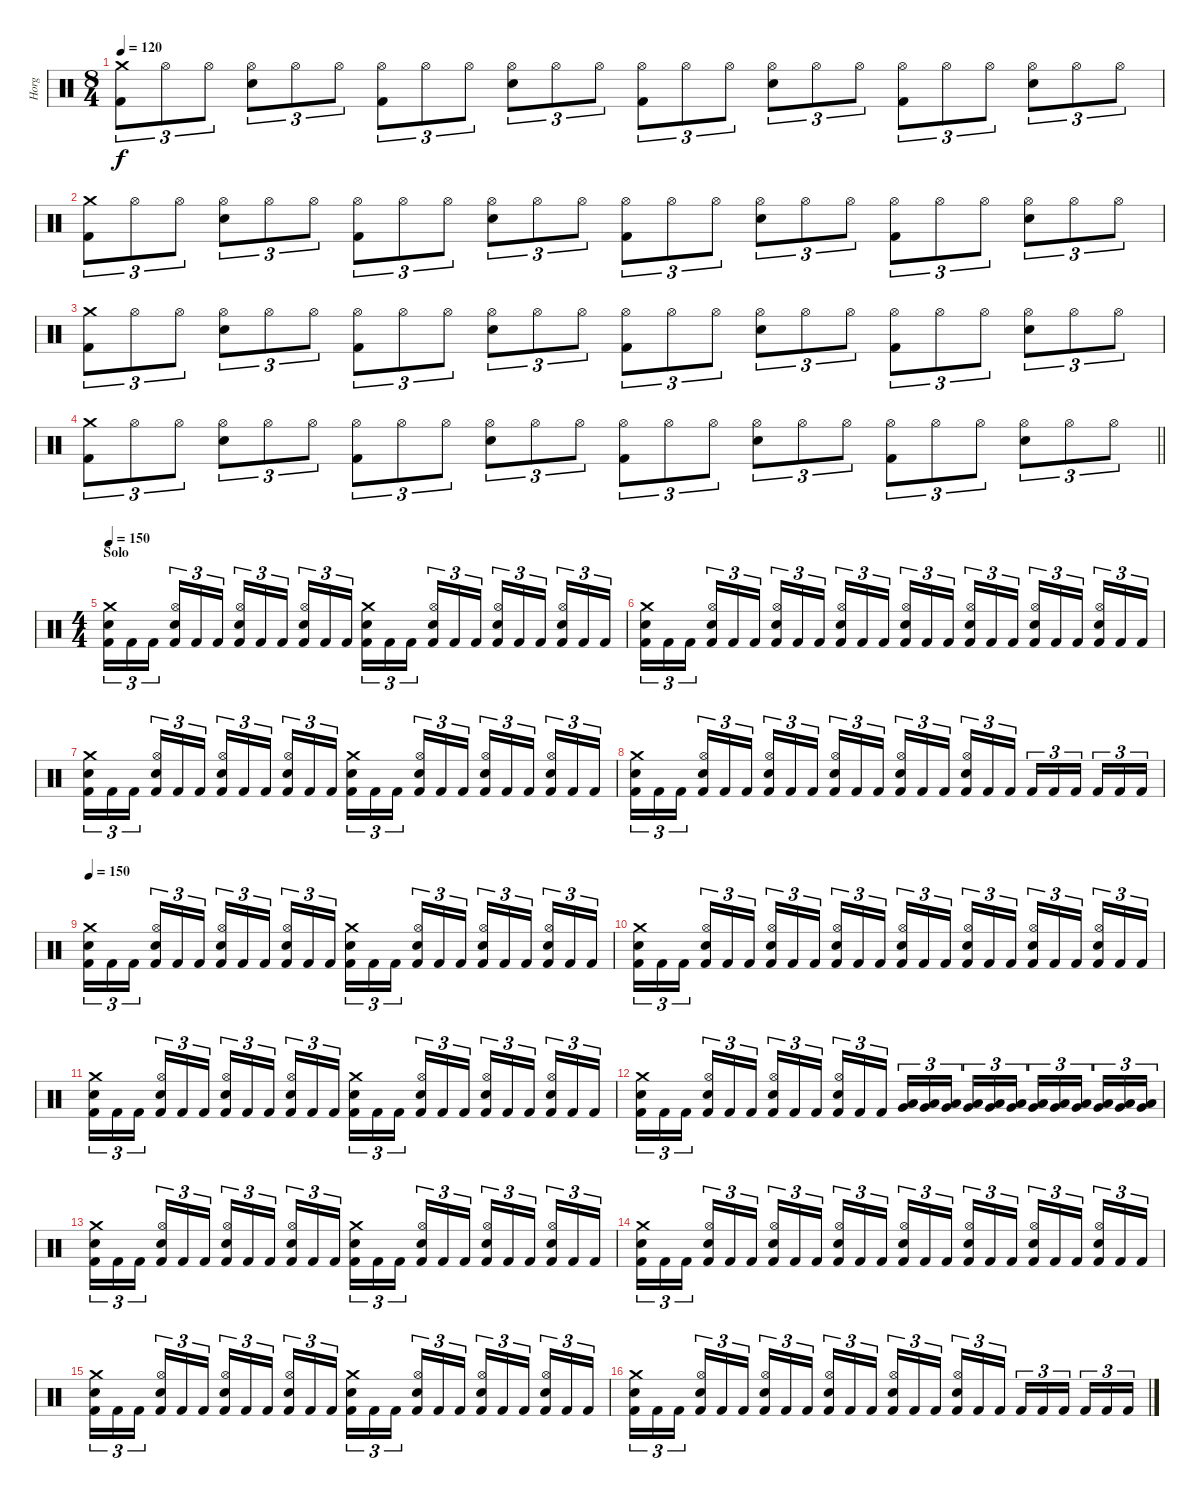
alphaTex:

\track ("Horg" "Horg") {instrument percussion}
\staff {score}
\articulation defaults
\ts (8 4)
\tempo 120
\clef neutral
\ks c
("Crash medium (hit)" "Kick (hit) 2").8{tu (3 2) dy f} "Hi-Hat (open)".8{tu (3 2)} "Hi-Hat (open)".8{tu (3 2)} ("Hi-Hat (open)" "Snare (hit) 2").8{tu (3 2)} "Hi-Hat (open)".8{tu (3 2)} "Hi-Hat (open)".8{tu (3 2)} ("Hi-Hat (open)" "Kick (hit) 2").8{tu (3 2)} "Hi-Hat (open)".8{tu (3 2)} "Hi-Hat (open)".8{tu (3 2)} ("Hi-Hat (open)" "Snare (hit) 2").8{tu (3 2)} "Hi-Hat (open)".8{tu (3 2)} "Hi-Hat (open)".8{tu (3 2)} ("Hi-Hat (open)" "Kick (hit) 2").8{tu (3 2)} "Hi-Hat (open)".8{tu (3 2)} "Hi-Hat (open)".8{tu (3 2)} ("Hi-Hat (open)" "Snare (hit) 2").8{tu (3 2)} "Hi-Hat (open)".8{tu (3 2)} "Hi-Hat (open)".8{tu (3 2)} ("Hi-Hat (open)" "Kick (hit) 2").8{tu (3 2)} "Hi-Hat (open)".8{tu (3 2)} "Hi-Hat (open)".8{tu (3 2)} ("Hi-Hat (open)" "Snare (hit) 2").8{tu (3 2)} "Hi-Hat (open)".8{tu (3 2)} "Hi-Hat (open)".8{tu (3 2)} |
("Crash medium (hit)" "Kick (hit) 2").8{tu (3 2)} "Hi-Hat (open)".8{tu (3 2)} "Hi-Hat (open)".8{tu (3 2)} ("Hi-Hat (open)" "Snare (hit) 2").8{tu (3 2)} "Hi-Hat (open)".8{tu (3 2)} "Hi-Hat (open)".8{tu (3 2)} ("Hi-Hat (open)" "Kick (hit) 2").8{tu (3 2)} "Hi-Hat (open)".8{tu (3 2)} "Hi-Hat (open)".8{tu (3 2)} ("Hi-Hat (open)" "Snare (hit) 2").8{tu (3 2)} "Hi-Hat (open)".8{tu (3 2)} "Hi-Hat (open)".8{tu (3 2)} ("Hi-Hat (open)" "Kick (hit) 2").8{tu (3 2)} "Hi-Hat (open)".8{tu (3 2)} "Hi-Hat (open)".8{tu (3 2)} ("Hi-Hat (open)" "Snare (hit) 2").8{tu (3 2)} "Hi-Hat (open)".8{tu (3 2)} "Hi-Hat (open)".8{tu (3 2)} ("Hi-Hat (open)" "Kick (hit) 2").8{tu (3 2)} "Hi-Hat (open)".8{tu (3 2)} "Hi-Hat (open)".8{tu (3 2)} ("Hi-Hat (open)" "Snare (hit) 2").8{tu (3 2)} "Hi-Hat (open)".8{tu (3 2)} "Hi-Hat (open)".8{tu (3 2)} |
("Crash medium (hit)" "Kick (hit) 2").8{tu (3 2)} "Hi-Hat (open)".8{tu (3 2)} "Hi-Hat (open)".8{tu (3 2)} ("Hi-Hat (open)" "Snare (hit) 2").8{tu (3 2)} "Hi-Hat (open)".8{tu (3 2)} "Hi-Hat (open)".8{tu (3 2)} ("Hi-Hat (open)" "Kick (hit) 2").8{tu (3 2)} "Hi-Hat (open)".8{tu (3 2)} "Hi-Hat (open)".8{tu (3 2)} ("Hi-Hat (open)" "Snare (hit) 2").8{tu (3 2)} "Hi-Hat (open)".8{tu (3 2)} "Hi-Hat (open)".8{tu (3 2)} ("Hi-Hat (open)" "Kick (hit) 2").8{tu (3 2)} "Hi-Hat (open)".8{tu (3 2)} "Hi-Hat (open)".8{tu (3 2)} ("Hi-Hat (open)" "Snare (hit) 2").8{tu (3 2)} "Hi-Hat (open)".8{tu (3 2)} "Hi-Hat (open)".8{tu (3 2)} ("Hi-Hat (open)" "Kick (hit) 2").8{tu (3 2)} "Hi-Hat (open)".8{tu (3 2)} "Hi-Hat (open)".8{tu (3 2)} ("Hi-Hat (open)" "Snare (hit) 2").8{tu (3 2)} "Hi-Hat (open)".8{tu (3 2)} "Hi-Hat (open)".8{tu (3 2)} |
\barLineRight lightlight
("Crash medium (hit)" "Kick (hit) 2").8{tu (3 2)} "Hi-Hat (open)".8{tu (3 2)} "Hi-Hat (open)".8{tu (3 2)} ("Hi-Hat (open)" "Snare (hit) 2").8{tu (3 2)} "Hi-Hat (open)".8{tu (3 2)} "Hi-Hat (open)".8{tu (3 2)} ("Hi-Hat (open)" "Kick (hit) 2").8{tu (3 2)} "Hi-Hat (open)".8{tu (3 2)} "Hi-Hat (open)".8{tu (3 2)} ("Hi-Hat (open)" "Snare (hit) 2").8{tu (3 2)} "Hi-Hat (open)".8{tu (3 2)} "Hi-Hat (open)".8{tu (3 2)} ("Hi-Hat (open)" "Kick (hit) 2").8{tu (3 2)} "Hi-Hat (open)".8{tu (3 2)} "Hi-Hat (open)".8{tu (3 2)} ("Hi-Hat (open)" "Snare (hit) 2").8{tu (3 2)} "Hi-Hat (open)".8{tu (3 2)} "Hi-Hat (open)".8{tu (3 2)} ("Hi-Hat (open)" "Kick (hit) 2").8{tu (3 2)} "Hi-Hat (open)".8{tu (3 2)} "Hi-Hat (open)".8{tu (3 2)} ("Hi-Hat (open)" "Snare (hit) 2").8{tu (3 2)} "Hi-Hat (open)".8{tu (3 2)} "Hi-Hat (open)".8{tu (3 2)} |
\ts (4 4)
\section ("" "Solo ")
\tempo 150
("Crash medium (hit)" "Snare (hit) 2" "Kick (hit) 2").16{tu (3 2)} "Kick (hit) 2".16{tu (3 2)} "Kick (hit) 2".16{tu (3 2) beam splitsecondary} ("Hi-Hat (open)" "Snare (hit) 2" "Kick (hit) 2").16{tu (3 2)} "Kick (hit) 2".16{tu (3 2)} "Kick (hit) 2".16{tu (3 2)} ("Hi-Hat (open)" "Snare (hit) 2" "Kick (hit) 2").16{tu (3 2)} "Kick (hit) 2".16{tu (3 2)} "Kick (hit) 2".16{tu (3 2) beam splitsecondary} ("Hi-Hat (open)" "Snare (hit) 2" "Kick (hit) 2").16{tu (3 2)} "Kick (hit) 2".16{tu (3 2)} "Kick (hit) 2".16{tu (3 2)} ("Crash medium (hit)" "Snare (hit) 2" "Kick (hit) 2").16{tu (3 2)} "Kick (hit) 2".16{tu (3 2)} "Kick (hit) 2".16{tu (3 2) beam splitsecondary} ("Hi-Hat (open)" "Snare (hit) 2" "Kick (hit) 2").16{tu (3 2)} "Kick (hit) 2".16{tu (3 2)} "Kick (hit) 2".16{tu (3 2)} ("Hi-Hat (open)" "Snare (hit) 2" "Kick (hit) 2").16{tu (3 2)} "Kick (hit) 2".16{tu (3 2)} "Kick (hit) 2".16{tu (3 2) beam splitsecondary} ("Hi-Hat (open)" "Snare (hit) 2" "Kick (hit) 2").16{tu (3 2)} "Kick (hit) 2".16{tu (3 2)} "Kick (hit) 2".16{tu (3 2)} |
("Crash medium (hit)" "Snare (hit) 2" "Kick (hit) 2").16{tu (3 2)} "Kick (hit) 2".16{tu (3 2)} "Kick (hit) 2".16{tu (3 2) beam splitsecondary} ("Hi-Hat (open)" "Snare (hit) 2" "Kick (hit) 2").16{tu (3 2)} "Kick (hit) 2".16{tu (3 2)} "Kick (hit) 2".16{tu (3 2)} ("Hi-Hat (open)" "Snare (hit) 2" "Kick (hit) 2").16{tu (3 2)} "Kick (hit) 2".16{tu (3 2)} "Kick (hit) 2".16{tu (3 2) beam splitsecondary} ("Hi-Hat (open)" "Snare (hit) 2" "Kick (hit) 2").16{tu (3 2)} "Kick (hit) 2".16{tu (3 2)} "Kick (hit) 2".16{tu (3 2)} ("Hi-Hat (open)" "Snare (hit) 2" "Kick (hit) 2").16{tu (3 2)} "Kick (hit) 2".16{tu (3 2)} "Kick (hit) 2".16{tu (3 2) beam splitsecondary} ("Hi-Hat (open)" "Snare (hit) 2" "Kick (hit) 2").16{tu (3 2)} "Kick (hit) 2".16{tu (3 2)} "Kick (hit) 2".16{tu (3 2)} ("Hi-Hat (open)" "Snare (hit) 2" "Kick (hit) 2").16{tu (3 2)} "Kick (hit) 2".16{tu (3 2)} "Kick (hit) 2".16{tu (3 2) beam splitsecondary} ("Hi-Hat (open)" "Snare (hit) 2" "Kick (hit) 2").16{tu (3 2)} "Kick (hit) 2".16{tu (3 2)} "Kick (hit) 2".16{tu (3 2)} |
("Crash medium (hit)" "Snare (hit) 2" "Kick (hit) 2").16{tu (3 2)} "Kick (hit) 2".16{tu (3 2)} "Kick (hit) 2".16{tu (3 2) beam splitsecondary} ("Hi-Hat (open)" "Snare (hit) 2" "Kick (hit) 2").16{tu (3 2)} "Kick (hit) 2".16{tu (3 2)} "Kick (hit) 2".16{tu (3 2)} ("Hi-Hat (open)" "Snare (hit) 2" "Kick (hit) 2").16{tu (3 2)} "Kick (hit) 2".16{tu (3 2)} "Kick (hit) 2".16{tu (3 2) beam splitsecondary} ("Hi-Hat (open)" "Snare (hit) 2" "Kick (hit) 2").16{tu (3 2)} "Kick (hit) 2".16{tu (3 2)} "Kick (hit) 2".16{tu (3 2)} ("Crash medium (hit)" "Snare (hit) 2" "Kick (hit) 2").16{tu (3 2)} "Kick (hit) 2".16{tu (3 2)} "Kick (hit) 2".16{tu (3 2) beam splitsecondary} ("Hi-Hat (open)" "Snare (hit) 2" "Kick (hit) 2").16{tu (3 2)} "Kick (hit) 2".16{tu (3 2)} "Kick (hit) 2".16{tu (3 2)} ("Hi-Hat (open)" "Snare (hit) 2" "Kick (hit) 2").16{tu (3 2)} "Kick (hit) 2".16{tu (3 2)} "Kick (hit) 2".16{tu (3 2) beam splitsecondary} ("Hi-Hat (open)" "Snare (hit) 2" "Kick (hit) 2").16{tu (3 2)} "Kick (hit) 2".16{tu (3 2)} "Kick (hit) 2".16{tu (3 2)} |
("Crash medium (hit)" "Snare (hit) 2" "Kick (hit) 2").16{tu (3 2)} "Kick (hit) 2".16{tu (3 2)} "Kick (hit) 2".16{tu (3 2) beam splitsecondary} ("Hi-Hat (open)" "Snare (hit) 2" "Kick (hit) 2").16{tu (3 2)} "Kick (hit) 2".16{tu (3 2)} "Kick (hit) 2".16{tu (3 2)} ("Hi-Hat (open)" "Snare (hit) 2" "Kick (hit) 2").16{tu (3 2)} "Kick (hit) 2".16{tu (3 2)} "Kick (hit) 2".16{tu (3 2) beam splitsecondary} ("Hi-Hat (open)" "Snare (hit) 2" "Kick (hit) 2").16{tu (3 2)} "Kick (hit) 2".16{tu (3 2)} "Kick (hit) 2".16{tu (3 2)} ("Hi-Hat (open)" "Snare (hit) 2" "Kick (hit) 2").16{tu (3 2)} "Kick (hit) 2".16{tu (3 2)} "Kick (hit) 2".16{tu (3 2) beam splitsecondary} ("Hi-Hat (open)" "Snare (hit) 2" "Kick (hit) 2").16{tu (3 2)} "Kick (hit) 2".16{tu (3 2)} "Kick (hit) 2".16{tu (3 2)} "Kick (hit) 2".16{tu (3 2)} "Kick (hit) 2".16{tu (3 2)} "Kick (hit) 2".16{tu (3 2) beam splitsecondary} "Kick (hit) 2".16{tu (3 2)} "Kick (hit) 2".16{tu (3 2)} "Kick (hit) 2".16{tu (3 2)} |
\tempo 150
("Crash medium (hit)" "Snare (hit) 2" "Kick (hit) 2").16{tu (3 2)} "Kick (hit) 2".16{tu (3 2)} "Kick (hit) 2".16{tu (3 2) beam splitsecondary} ("Hi-Hat (open)" "Snare (hit) 2" "Kick (hit) 2").16{tu (3 2)} "Kick (hit) 2".16{tu (3 2)} "Kick (hit) 2".16{tu (3 2)} ("Hi-Hat (open)" "Snare (hit) 2" "Kick (hit) 2").16{tu (3 2)} "Kick (hit) 2".16{tu (3 2)} "Kick (hit) 2".16{tu (3 2) beam splitsecondary} ("Hi-Hat (open)" "Snare (hit) 2" "Kick (hit) 2").16{tu (3 2)} "Kick (hit) 2".16{tu (3 2)} "Kick (hit) 2".16{tu (3 2)} ("Crash medium (hit)" "Snare (hit) 2" "Kick (hit) 2").16{tu (3 2)} "Kick (hit) 2".16{tu (3 2)} "Kick (hit) 2".16{tu (3 2) beam splitsecondary} ("Hi-Hat (open)" "Snare (hit) 2" "Kick (hit) 2").16{tu (3 2)} "Kick (hit) 2".16{tu (3 2)} "Kick (hit) 2".16{tu (3 2)} ("Hi-Hat (open)" "Snare (hit) 2" "Kick (hit) 2").16{tu (3 2)} "Kick (hit) 2".16{tu (3 2)} "Kick (hit) 2".16{tu (3 2) beam splitsecondary} ("Hi-Hat (open)" "Snare (hit) 2" "Kick (hit) 2").16{tu (3 2)} "Kick (hit) 2".16{tu (3 2)} "Kick (hit) 2".16{tu (3 2)} |
("Crash medium (hit)" "Snare (hit) 2" "Kick (hit) 2").16{tu (3 2)} "Kick (hit) 2".16{tu (3 2)} "Kick (hit) 2".16{tu (3 2) beam splitsecondary} ("Hi-Hat (open)" "Snare (hit) 2" "Kick (hit) 2").16{tu (3 2)} "Kick (hit) 2".16{tu (3 2)} "Kick (hit) 2".16{tu (3 2)} ("Hi-Hat (open)" "Snare (hit) 2" "Kick (hit) 2").16{tu (3 2)} "Kick (hit) 2".16{tu (3 2)} "Kick (hit) 2".16{tu (3 2) beam splitsecondary} ("Hi-Hat (open)" "Snare (hit) 2" "Kick (hit) 2").16{tu (3 2)} "Kick (hit) 2".16{tu (3 2)} "Kick (hit) 2".16{tu (3 2)} ("Hi-Hat (open)" "Snare (hit) 2" "Kick (hit) 2").16{tu (3 2)} "Kick (hit) 2".16{tu (3 2)} "Kick (hit) 2".16{tu (3 2) beam splitsecondary} ("Hi-Hat (open)" "Snare (hit) 2" "Kick (hit) 2").16{tu (3 2)} "Kick (hit) 2".16{tu (3 2)} "Kick (hit) 2".16{tu (3 2)} ("Hi-Hat (open)" "Snare (hit) 2" "Kick (hit) 2").16{tu (3 2)} "Kick (hit) 2".16{tu (3 2)} "Kick (hit) 2".16{tu (3 2) beam splitsecondary} ("Hi-Hat (open)" "Snare (hit) 2" "Kick (hit) 2").16{tu (3 2)} "Kick (hit) 2".16{tu (3 2)} "Kick (hit) 2".16{tu (3 2)} |
("Crash medium (hit)" "Snare (hit) 2" "Kick (hit) 2").16{tu (3 2)} "Kick (hit) 2".16{tu (3 2)} "Kick (hit) 2".16{tu (3 2) beam splitsecondary} ("Hi-Hat (open)" "Snare (hit) 2" "Kick (hit) 2").16{tu (3 2)} "Kick (hit) 2".16{tu (3 2)} "Kick (hit) 2".16{tu (3 2)} ("Hi-Hat (open)" "Snare (hit) 2" "Kick (hit) 2").16{tu (3 2)} "Kick (hit) 2".16{tu (3 2)} "Kick (hit) 2".16{tu (3 2) beam splitsecondary} ("Hi-Hat (open)" "Snare (hit) 2" "Kick (hit) 2").16{tu (3 2)} "Kick (hit) 2".16{tu (3 2)} "Kick (hit) 2".16{tu (3 2)} ("Crash medium (hit)" "Snare (hit) 2" "Kick (hit) 2").16{tu (3 2)} "Kick (hit) 2".16{tu (3 2)} "Kick (hit) 2".16{tu (3 2) beam splitsecondary} ("Hi-Hat (open)" "Snare (hit) 2" "Kick (hit) 2").16{tu (3 2)} "Kick (hit) 2".16{tu (3 2)} "Kick (hit) 2".16{tu (3 2)} ("Hi-Hat (open)" "Snare (hit) 2" "Kick (hit) 2").16{tu (3 2)} "Kick (hit) 2".16{tu (3 2)} "Kick (hit) 2".16{tu (3 2) beam splitsecondary} ("Hi-Hat (open)" "Snare (hit) 2" "Kick (hit) 2").16{tu (3 2)} "Kick (hit) 2".16{tu (3 2)} "Kick (hit) 2".16{tu (3 2)} |
("Crash medium (hit)" "Snare (hit) 2" "Kick (hit) 2").16{tu (3 2)} "Kick (hit) 2".16{tu (3 2)} "Kick (hit) 2".16{tu (3 2) beam splitsecondary} ("Hi-Hat (open)" "Snare (hit) 2" "Kick (hit) 2").16{tu (3 2)} "Kick (hit) 2".16{tu (3 2)} "Kick (hit) 2".16{tu (3 2)} ("Hi-Hat (open)" "Snare (hit) 2" "Kick (hit) 2").16{tu (3 2)} "Kick (hit) 2".16{tu (3 2)} "Kick (hit) 2".16{tu (3 2) beam splitsecondary} ("Hi-Hat (open)" "Snare (hit) 2" "Kick (hit) 2").16{tu (3 2)} "Kick (hit) 2".16{tu (3 2)} "Kick (hit) 2".16{tu (3 2)} ("Low Tom (hit)" "Very Low Tom (hit)").16{tu (3 2)} ("Low Tom (hit)" "Very Low Tom (hit)").16{tu (3 2)} ("Low Tom (hit)" "Very Low Tom (hit)").16{tu (3 2) beam splitsecondary} ("Low Tom (hit)" "Very Low Tom (hit)").16{tu (3 2)} ("Low Tom (hit)" "Very Low Tom (hit)").16{tu (3 2)} ("Low Tom (hit)" "Very Low Tom (hit)").16{tu (3 2)} ("Very Low Tom (hit)" "Low Floor Tom (hit)").16{tu (3 2)} ("Very Low Tom (hit)" "Low Floor Tom (hit)").16{tu (3 2)} ("Very Low Tom (hit)" "Low Floor Tom (hit)").16{tu (3 2) beam splitsecondary} ("Very Low Tom (hit)" "Low Floor Tom (hit)").16{tu (3 2)} ("Very Low Tom (hit)" "Low Floor Tom (hit)").16{tu (3 2)} ("Very Low Tom (hit)" "Low Floor Tom (hit)").16{tu (3 2)} |
("Crash medium (hit)" "Snare (hit) 2" "Kick (hit) 2").16{tu (3 2)} "Kick (hit) 2".16{tu (3 2)} "Kick (hit) 2".16{tu (3 2) beam splitsecondary} ("Hi-Hat (open)" "Snare (hit) 2" "Kick (hit) 2").16{tu (3 2)} "Kick (hit) 2".16{tu (3 2)} "Kick (hit) 2".16{tu (3 2)} ("Hi-Hat (open)" "Snare (hit) 2" "Kick (hit) 2").16{tu (3 2)} "Kick (hit) 2".16{tu (3 2)} "Kick (hit) 2".16{tu (3 2) beam splitsecondary} ("Hi-Hat (open)" "Snare (hit) 2" "Kick (hit) 2").16{tu (3 2)} "Kick (hit) 2".16{tu (3 2)} "Kick (hit) 2".16{tu (3 2)} ("Crash medium (hit)" "Snare (hit) 2" "Kick (hit) 2").16{tu (3 2)} "Kick (hit) 2".16{tu (3 2)} "Kick (hit) 2".16{tu (3 2) beam splitsecondary} ("Hi-Hat (open)" "Snare (hit) 2" "Kick (hit) 2").16{tu (3 2)} "Kick (hit) 2".16{tu (3 2)} "Kick (hit) 2".16{tu (3 2)} ("Hi-Hat (open)" "Snare (hit) 2" "Kick (hit) 2").16{tu (3 2)} "Kick (hit) 2".16{tu (3 2)} "Kick (hit) 2".16{tu (3 2) beam splitsecondary} ("Hi-Hat (open)" "Snare (hit) 2" "Kick (hit) 2").16{tu (3 2)} "Kick (hit) 2".16{tu (3 2)} "Kick (hit) 2".16{tu (3 2)} |
("Crash medium (hit)" "Snare (hit) 2" "Kick (hit) 2").16{tu (3 2)} "Kick (hit) 2".16{tu (3 2)} "Kick (hit) 2".16{tu (3 2) beam splitsecondary} ("Hi-Hat (open)" "Snare (hit) 2" "Kick (hit) 2").16{tu (3 2)} "Kick (hit) 2".16{tu (3 2)} "Kick (hit) 2".16{tu (3 2)} ("Hi-Hat (open)" "Snare (hit) 2" "Kick (hit) 2").16{tu (3 2)} "Kick (hit) 2".16{tu (3 2)} "Kick (hit) 2".16{tu (3 2) beam splitsecondary} ("Hi-Hat (open)" "Snare (hit) 2" "Kick (hit) 2").16{tu (3 2)} "Kick (hit) 2".16{tu (3 2)} "Kick (hit) 2".16{tu (3 2)} ("Hi-Hat (open)" "Snare (hit) 2" "Kick (hit) 2").16{tu (3 2)} "Kick (hit) 2".16{tu (3 2)} "Kick (hit) 2".16{tu (3 2) beam splitsecondary} ("Hi-Hat (open)" "Snare (hit) 2" "Kick (hit) 2").16{tu (3 2)} "Kick (hit) 2".16{tu (3 2)} "Kick (hit) 2".16{tu (3 2)} ("Hi-Hat (open)" "Snare (hit) 2" "Kick (hit) 2").16{tu (3 2)} "Kick (hit) 2".16{tu (3 2)} "Kick (hit) 2".16{tu (3 2) beam splitsecondary} ("Hi-Hat (open)" "Snare (hit) 2" "Kick (hit) 2").16{tu (3 2)} "Kick (hit) 2".16{tu (3 2)} "Kick (hit) 2".16{tu (3 2)} |
("Crash medium (hit)" "Snare (hit) 2" "Kick (hit) 2").16{tu (3 2)} "Kick (hit) 2".16{tu (3 2)} "Kick (hit) 2".16{tu (3 2) beam splitsecondary} ("Hi-Hat (open)" "Snare (hit) 2" "Kick (hit) 2").16{tu (3 2)} "Kick (hit) 2".16{tu (3 2)} "Kick (hit) 2".16{tu (3 2)} ("Hi-Hat (open)" "Snare (hit) 2" "Kick (hit) 2").16{tu (3 2)} "Kick (hit) 2".16{tu (3 2)} "Kick (hit) 2".16{tu (3 2) beam splitsecondary} ("Hi-Hat (open)" "Snare (hit) 2" "Kick (hit) 2").16{tu (3 2)} "Kick (hit) 2".16{tu (3 2)} "Kick (hit) 2".16{tu (3 2)} ("Crash medium (hit)" "Snare (hit) 2" "Kick (hit) 2").16{tu (3 2)} "Kick (hit) 2".16{tu (3 2)} "Kick (hit) 2".16{tu (3 2) beam splitsecondary} ("Hi-Hat (open)" "Snare (hit) 2" "Kick (hit) 2").16{tu (3 2)} "Kick (hit) 2".16{tu (3 2)} "Kick (hit) 2".16{tu (3 2)} ("Hi-Hat (open)" "Snare (hit) 2" "Kick (hit) 2").16{tu (3 2)} "Kick (hit) 2".16{tu (3 2)} "Kick (hit) 2".16{tu (3 2) beam splitsecondary} ("Hi-Hat (open)" "Snare (hit) 2" "Kick (hit) 2").16{tu (3 2)} "Kick (hit) 2".16{tu (3 2)} "Kick (hit) 2".16{tu (3 2)} |
("Crash medium (hit)" "Snare (hit) 2" "Kick (hit) 2").16{tu (3 2)} "Kick (hit) 2".16{tu (3 2)} "Kick (hit) 2".16{tu (3 2) beam splitsecondary} ("Hi-Hat (open)" "Snare (hit) 2" "Kick (hit) 2").16{tu (3 2)} "Kick (hit) 2".16{tu (3 2)} "Kick (hit) 2".16{tu (3 2)} ("Hi-Hat (open)" "Snare (hit) 2" "Kick (hit) 2").16{tu (3 2)} "Kick (hit) 2".16{tu (3 2)} "Kick (hit) 2".16{tu (3 2) beam splitsecondary} ("Hi-Hat (open)" "Snare (hit) 2" "Kick (hit) 2").16{tu (3 2)} "Kick (hit) 2".16{tu (3 2)} "Kick (hit) 2".16{tu (3 2)} ("Hi-Hat (open)" "Snare (hit) 2" "Kick (hit) 2").16{tu (3 2)} "Kick (hit) 2".16{tu (3 2)} "Kick (hit) 2".16{tu (3 2) beam splitsecondary} ("Hi-Hat (open)" "Snare (hit) 2" "Kick (hit) 2").16{tu (3 2)} "Kick (hit) 2".16{tu (3 2)} "Kick (hit) 2".16{tu (3 2)} "Kick (hit) 2".16{tu (3 2)} "Kick (hit) 2".16{tu (3 2)} "Kick (hit) 2".16{tu (3 2) beam splitsecondary} "Kick (hit) 2".16{tu (3 2)} "Kick (hit) 2".16{tu (3 2)} "Kick (hit) 2".16{tu (3 2)}
